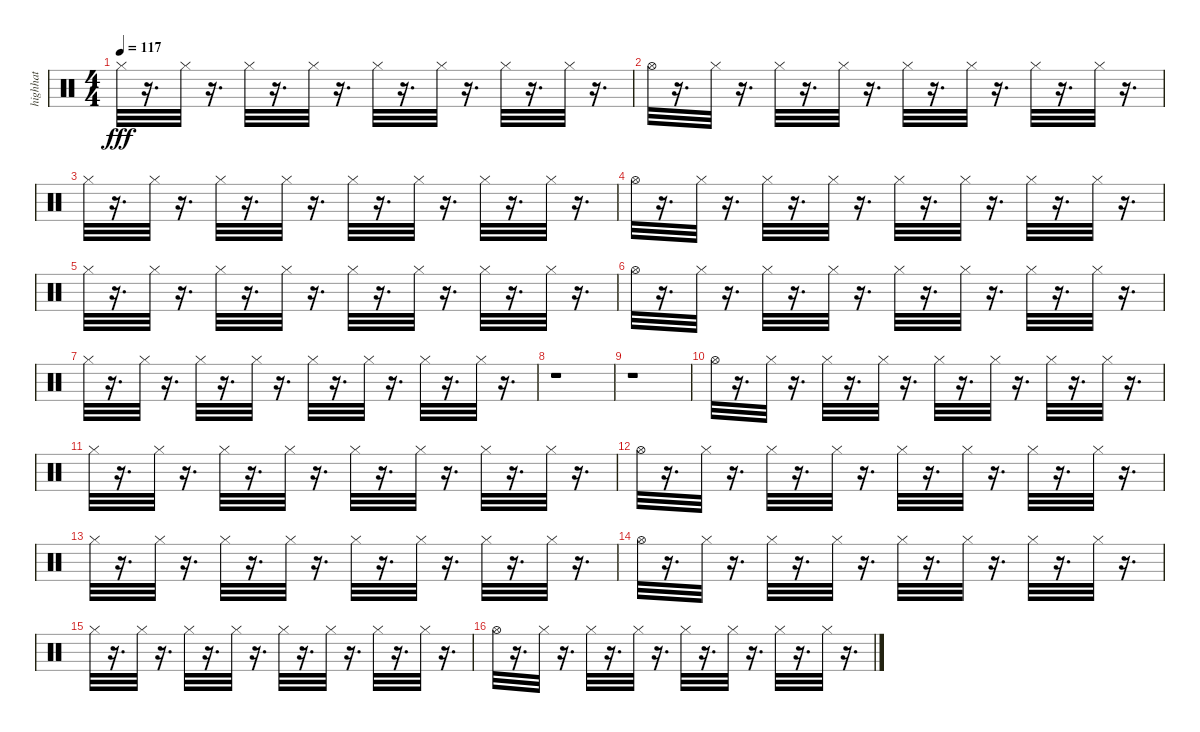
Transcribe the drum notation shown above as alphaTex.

\track ("highhat" "highhat") {instrument percussion}
\staff {score}
\articulation defaults
\ts (4 4)
\tempo 117
\clef neutral
\ks c "Hi-Hat (closed)".32{dy fff}
r.16{d} "Hi-Hat (closed)".32 r.16{d} "Hi-Hat (closed)".32 r.16{d} "Hi-Hat (closed)".32 r.16{d} "Hi-Hat (closed)".32 r.16{d} "Hi-Hat (closed)".32 r.16{d} "Hi-Hat (closed)".32 r.16{d} "Hi-Hat (closed)".32 r.16{d} |
"Hi-Hat (open)".32 r.16{d} "Hi-Hat (closed)".32 r.16{d} "Hi-Hat (closed)".32 r.16{d} "Hi-Hat (closed)".32 r.16{d} "Hi-Hat (closed)".32 r.16{d} "Hi-Hat (closed)".32 r.16{d} "Hi-Hat (closed)".32 r.16{d} "Hi-Hat (closed)".32 r.16{d} |
"Hi-Hat (closed)".32 r.16{d} "Hi-Hat (closed)".32 r.16{d} "Hi-Hat (closed)".32 r.16{d} "Hi-Hat (closed)".32 r.16{d} "Hi-Hat (closed)".32 r.16{d} "Hi-Hat (closed)".32 r.16{d} "Hi-Hat (closed)".32 r.16{d} "Hi-Hat (closed)".32 r.16{d} |
"Hi-Hat (open)".32 r.16{d} "Hi-Hat (closed)".32 r.16{d} "Hi-Hat (closed)".32 r.16{d} "Hi-Hat (closed)".32 r.16{d} "Hi-Hat (closed)".32 r.16{d} "Hi-Hat (closed)".32 r.16{d} "Hi-Hat (closed)".32 r.16{d} "Hi-Hat (closed)".32 r.16{d} |
"Hi-Hat (closed)".32 r.16{d} "Hi-Hat (closed)".32 r.16{d} "Hi-Hat (closed)".32 r.16{d} "Hi-Hat (closed)".32 r.16{d} "Hi-Hat (closed)".32 r.16{d} "Hi-Hat (closed)".32 r.16{d} "Hi-Hat (closed)".32 r.16{d} "Hi-Hat (closed)".32 r.16{d} |
"Hi-Hat (open)".32 r.16{d} "Hi-Hat (closed)".32 r.16{d} "Hi-Hat (closed)".32 r.16{d} "Hi-Hat (closed)".32 r.16{d} "Hi-Hat (closed)".32 r.16{d} "Hi-Hat (closed)".32 r.16{d} "Hi-Hat (closed)".32 r.16{d} "Hi-Hat (closed)".32 r.16{d} |
"Hi-Hat (closed)".32 r.16{d} "Hi-Hat (closed)".32 r.16{d} "Hi-Hat (closed)".32 r.16{d} "Hi-Hat (closed)".32 r.16{d} "Hi-Hat (closed)".32 r.16{d} "Hi-Hat (closed)".32 r.16{d} "Hi-Hat (closed)".32 r.16{d} "Hi-Hat (closed)".32 r.16{d} |
r.1 |
r.1 |
"Hi-Hat (open)".32 r.16{d} "Hi-Hat (closed)".32 r.16{d} "Hi-Hat (closed)".32 r.16{d} "Hi-Hat (closed)".32 r.16{d} "Hi-Hat (closed)".32 r.16{d} "Hi-Hat (closed)".32 r.16{d} "Hi-Hat (closed)".32 r.16{d} "Hi-Hat (closed)".32 r.16{d} |
"Hi-Hat (closed)".32 r.16{d} "Hi-Hat (closed)".32 r.16{d} "Hi-Hat (closed)".32 r.16{d} "Hi-Hat (closed)".32 r.16{d} "Hi-Hat (closed)".32 r.16{d} "Hi-Hat (closed)".32 r.16{d} "Hi-Hat (closed)".32 r.16{d} "Hi-Hat (closed)".32 r.16{d} |
"Hi-Hat (open)".32 r.16{d} "Hi-Hat (closed)".32 r.16{d} "Hi-Hat (closed)".32 r.16{d} "Hi-Hat (closed)".32 r.16{d} "Hi-Hat (closed)".32 r.16{d} "Hi-Hat (closed)".32 r.16{d} "Hi-Hat (closed)".32 r.16{d} "Hi-Hat (closed)".32 r.16{d} |
"Hi-Hat (closed)".32 r.16{d} "Hi-Hat (closed)".32 r.16{d} "Hi-Hat (closed)".32 r.16{d} "Hi-Hat (closed)".32 r.16{d} "Hi-Hat (closed)".32 r.16{d} "Hi-Hat (closed)".32 r.16{d} "Hi-Hat (closed)".32 r.16{d} "Hi-Hat (closed)".32 r.16{d} |
"Hi-Hat (open)".32 r.16{d} "Hi-Hat (closed)".32 r.16{d} "Hi-Hat (closed)".32 r.16{d} "Hi-Hat (closed)".32 r.16{d} "Hi-Hat (closed)".32 r.16{d} "Hi-Hat (closed)".32 r.16{d} "Hi-Hat (closed)".32 r.16{d} "Hi-Hat (closed)".32 r.16{d} |
"Hi-Hat (closed)".32 r.16{d} "Hi-Hat (closed)".32 r.16{d} "Hi-Hat (closed)".32 r.16{d} "Hi-Hat (closed)".32 r.16{d} "Hi-Hat (closed)".32 r.16{d} "Hi-Hat (closed)".32 r.16{d} "Hi-Hat (closed)".32 r.16{d} "Hi-Hat (closed)".32 r.16{d} |
"Hi-Hat (open)".32 r.16{d} "Hi-Hat (closed)".32 r.16{d} "Hi-Hat (closed)".32 r.16{d} "Hi-Hat (closed)".32 r.16{d} "Hi-Hat (closed)".32 r.16{d} "Hi-Hat (closed)".32 r.16{d} "Hi-Hat (closed)".32 r.16{d} "Hi-Hat (closed)".32 r.16{d}
